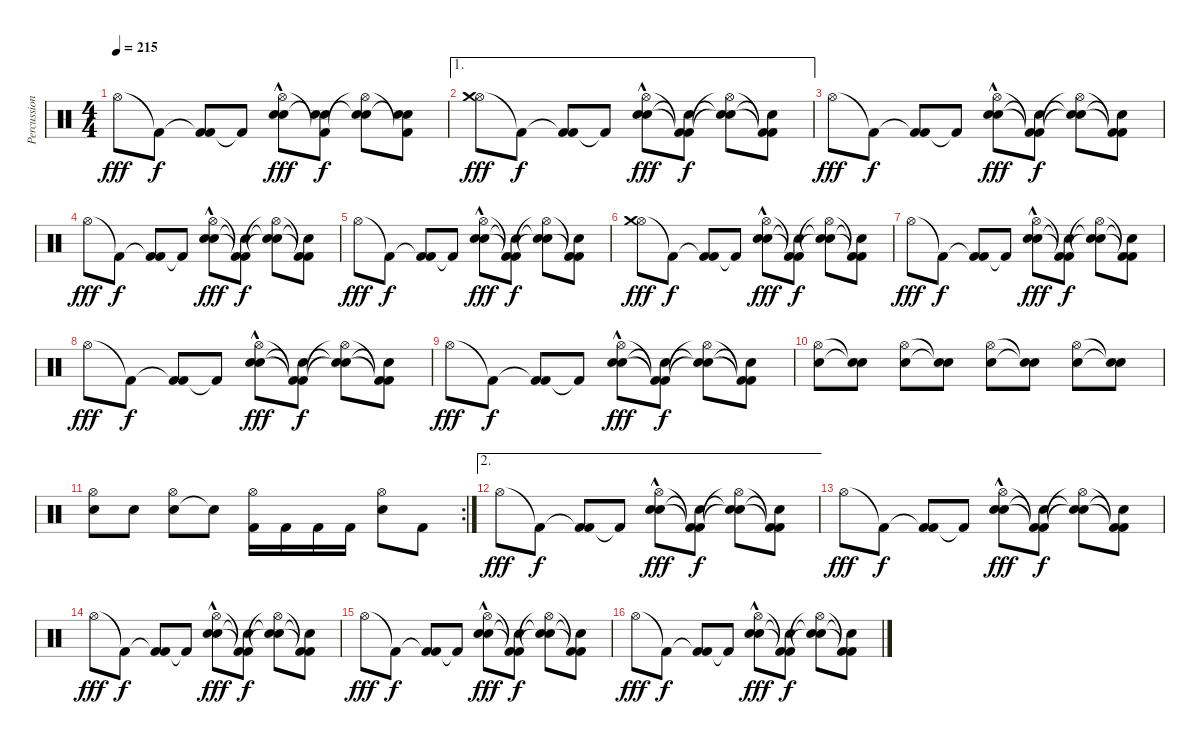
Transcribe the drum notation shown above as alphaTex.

\track ("Percussion" "Percussion") {instrument percussion}
\staff {score}
\articulation defaults
\ts (4 4)
\tempo 215
\clef neutral
\ks c "Hi-Hat (open)".8{dy fff} "Kick (hit) 2"{t}.8{dy f}
("Kick (hit) 2"{t} "Kick (hit) 2").8 "Kick (hit) 2"{t}.8 ("Snare (hit) 2"{hac} "Hi-Hat (open)"{hac} "Electric Snare (hit)").8{dy fff} ("Snare (hit) 2" "Kick (hit) 2"{t} "Snare (hit)"{t}).8{dy f} ("Electric Snare (hit)" "Hi-Hat (open)"{t} "Snare (hit)"{t}).8 ("Electric Snare (hit)" "Kick (hit) 2"{t} "Snare (hit)"{t}).8 |
\ae 1
("Hi-Hat (open)" "Crash medium (hit)").8{dy fff} "Kick (hit) 2"{t}.8{dy f} ("Kick (hit) 2"{t} "Kick (hit) 2").8 "Kick (hit) 2"{t}.8 ("Snare (hit) 2"{hac} "Hi-Hat (open)"{hac} "Electric Snare (hit)").8{dy fff} ("Kick (hit) 2"{t} "Kick (hit) 2"{t} "Snare (hit)"{t}).8{dy f} ("Snare (hit)"{t} "Hi-Hat (open)"{t} "Snare (hit)"{t}).8 ("Kick (hit) 2"{t} "Kick (hit) 2"{t} "Snare (hit)"{t}).8 |
"Hi-Hat (open)".8{dy fff} "Kick (hit) 2"{t}.8{dy f} ("Kick (hit) 2"{t} "Kick (hit) 2").8 "Kick (hit) 2"{t}.8 ("Snare (hit) 2"{hac} "Hi-Hat (open)"{hac} "Electric Snare (hit)").8{dy fff} ("Kick (hit) 2"{t} "Kick (hit) 2"{t} "Snare (hit)"{t}).8{dy f} ("Snare (hit)"{t} "Hi-Hat (open)"{t} "Snare (hit)"{t}).8 ("Kick (hit) 2"{t} "Kick (hit) 2"{t} "Snare (hit)"{t}).8 |
"Hi-Hat (open)".8{dy fff} "Kick (hit) 2"{t}.8{dy f} ("Kick (hit) 2"{t} "Kick (hit) 2").8 "Kick (hit) 2"{t}.8 ("Snare (hit) 2"{hac} "Hi-Hat (open)"{hac} "Electric Snare (hit)").8{dy fff} ("Kick (hit) 2"{t} "Kick (hit) 2"{t} "Snare (hit)"{t}).8{dy f} ("Snare (hit)"{t} "Hi-Hat (open)"{t} "Snare (hit)"{t}).8 ("Kick (hit) 2"{t} "Kick (hit) 2"{t} "Snare (hit)"{t}).8 |
"Hi-Hat (open)".8{dy fff} "Kick (hit) 2"{t}.8{dy f} ("Kick (hit) 2"{t} "Kick (hit) 2").8 "Kick (hit) 2"{t}.8 ("Snare (hit) 2"{hac} "Hi-Hat (open)"{hac} "Electric Snare (hit)").8{dy fff} ("Kick (hit) 2"{t} "Kick (hit) 2"{t} "Snare (hit)"{t}).8{dy f} ("Snare (hit)"{t} "Hi-Hat (open)"{t} "Snare (hit)"{t}).8 ("Kick (hit) 2"{t} "Kick (hit) 2"{t} "Electric Snare (hit)").8 |
("Hi-Hat (open)" "Crash medium (hit)").8{dy fff} "Kick (hit) 2"{t}.8{dy f} ("Kick (hit) 2"{t} "Kick (hit) 2").8 "Kick (hit) 2"{t}.8 ("Snare (hit) 2"{hac} "Hi-Hat (open)"{hac} "Electric Snare (hit)").8{dy fff} ("Kick (hit) 2"{t} "Kick (hit) 2"{t} "Snare (hit)"{t}).8{dy f} ("Snare (hit)"{t} "Hi-Hat (open)"{t} "Snare (hit)"{t}).8 ("Kick (hit) 2"{t} "Kick (hit) 2"{t} "Snare (hit)"{t}).8 |
"Hi-Hat (open)".8{dy fff} "Kick (hit) 2"{t}.8{dy f} ("Kick (hit) 2"{t} "Kick (hit) 2").8 "Kick (hit) 2"{t}.8 ("Snare (hit) 2"{hac} "Hi-Hat (open)"{hac} "Electric Snare (hit)").8{dy fff} ("Kick (hit) 2"{t} "Kick (hit) 2"{t} "Snare (hit)"{t}).8{dy f} ("Snare (hit)"{t} "Hi-Hat (open)"{t} "Snare (hit)"{t}).8 ("Kick (hit) 2"{t} "Kick (hit) 2"{t} "Snare (hit)"{t}).8 |
"Hi-Hat (open)".8{dy fff} "Kick (hit) 2"{t}.8{dy f} ("Kick (hit) 2"{t} "Kick (hit) 2").8 "Kick (hit) 2"{t}.8 ("Snare (hit) 2"{hac} "Hi-Hat (open)"{hac} "Electric Snare (hit)").8{dy fff} ("Kick (hit) 2"{t} "Kick (hit) 2"{t} "Snare (hit)"{t}).8{dy f} ("Snare (hit)"{t} "Hi-Hat (open)"{t} "Snare (hit)"{t}).8 ("Kick (hit) 2"{t} "Kick (hit) 2"{t} "Snare (hit)"{t}).8 |
"Hi-Hat (open)".8{dy fff} "Kick (hit) 2"{t}.8{dy f} ("Kick (hit) 2"{t} "Kick (hit) 2").8 "Kick (hit) 2"{t}.8 ("Snare (hit) 2"{hac} "Hi-Hat (open)"{hac} "Electric Snare (hit)").8{dy fff} ("Kick (hit) 2"{t} "Kick (hit) 2"{t} "Snare (hit)"{t}).8{dy f} ("Snare (hit)"{t} "Hi-Hat (open)"{t} "Snare (hit)"{t}).8 ("Kick (hit) 2"{t} "Kick (hit) 2"{t} "Snare (hit)"{t}).8 |
("Electric Snare (hit)" "Hi-Hat (open)").8 ("Snare (hit)"{t} "Snare (hit)"{t}).8 ("Electric Snare (hit)" "Hi-Hat (open)").8 ("Snare (hit)"{t} "Snare (hit)"{t}).8 ("Electric Snare (hit)" "Hi-Hat (open)").8 ("Snare (hit)"{t} "Snare (hit)"{t}).8 ("Electric Snare (hit)" "Hi-Hat (open)").8 ("Snare (hit)"{t} "Snare (hit)"{t}).8 |
\rc 2
("Snare (hit) 2" "Hi-Hat (open)").8 "Snare (hit) 2".8 ("Electric Snare (hit)" "Hi-Hat (open)").8 "Snare (hit)"{t}.8 ("Kick (hit) 2" "Hi-Hat (open)").16 "Kick (hit) 2".16 "Kick (hit) 2".16 "Kick (hit) 2".16 ("Electric Snare (hit)" "Hi-Hat (open)").8 "Kick (hit) 2".8 |
\ae 2 "Hi-Hat (open)".8{dy fff} "Kick (hit) 2"{t}.8{dy f}
("Kick (hit) 2"{t} "Kick (hit) 2").8 "Kick (hit) 2"{t}.8 ("Snare (hit) 2"{hac} "Hi-Hat (open)"{hac} "Electric Snare (hit)").8{dy fff} ("Kick (hit) 2"{t} "Kick (hit) 2"{t} "Snare (hit)"{t}).8{dy f} ("Snare (hit)"{t} "Hi-Hat (open)"{t} "Snare (hit)"{t}).8 ("Kick (hit) 2"{t} "Kick (hit) 2"{t} "Snare (hit)"{t}).8 |
"Hi-Hat (open)".8{dy fff} "Kick (hit) 2"{t}.8{dy f} ("Kick (hit) 2"{t} "Kick (hit) 2").8 "Kick (hit) 2"{t}.8 ("Snare (hit) 2"{hac} "Hi-Hat (open)"{hac} "Electric Snare (hit)").8{dy fff} ("Kick (hit) 2"{t} "Kick (hit) 2"{t} "Snare (hit)"{t}).8{dy f} ("Snare (hit)"{t} "Hi-Hat (open)"{t} "Snare (hit)"{t}).8 ("Kick (hit) 2"{t} "Kick (hit) 2"{t} "Snare (hit)"{t}).8 |
"Hi-Hat (open)".8{dy fff} "Kick (hit) 2"{t}.8{dy f} ("Kick (hit) 2"{t} "Kick (hit) 2").8 "Kick (hit) 2"{t}.8 ("Snare (hit) 2"{hac} "Hi-Hat (open)"{hac} "Electric Snare (hit)").8{dy fff} ("Kick (hit) 2"{t} "Kick (hit) 2"{t} "Snare (hit)"{t}).8{dy f} ("Snare (hit)"{t} "Hi-Hat (open)"{t} "Snare (hit)"{t}).8 ("Kick (hit) 2"{t} "Kick (hit) 2"{t} "Snare (hit)"{t}).8 |
"Hi-Hat (open)".8{dy fff} "Kick (hit) 2"{t}.8{dy f} ("Kick (hit) 2"{t} "Kick (hit) 2").8 "Kick (hit) 2"{t}.8 ("Snare (hit) 2"{hac} "Hi-Hat (open)"{hac} "Electric Snare (hit)").8{dy fff} ("Kick (hit) 2"{t} "Kick (hit) 2"{t} "Snare (hit)"{t}).8{dy f} ("Snare (hit)"{t} "Hi-Hat (open)"{t} "Snare (hit)"{t}).8 ("Kick (hit) 2"{t} "Kick (hit) 2"{t} "Snare (hit)"{t}).8 |
"Hi-Hat (open)".8{dy fff} "Kick (hit) 2"{t}.8{dy f} ("Kick (hit) 2"{t} "Kick (hit) 2").8 "Kick (hit) 2"{t}.8 ("Snare (hit) 2"{hac} "Hi-Hat (open)"{hac} "Electric Snare (hit)").8{dy fff} ("Kick (hit) 2"{t} "Kick (hit) 2"{t} "Snare (hit)"{t}).8{dy f} ("Snare (hit)"{t} "Hi-Hat (open)"{t} "Snare (hit)"{t}).8 ("Kick (hit) 2"{t} "Kick (hit) 2"{t} "Snare (hit)"{t}).8
